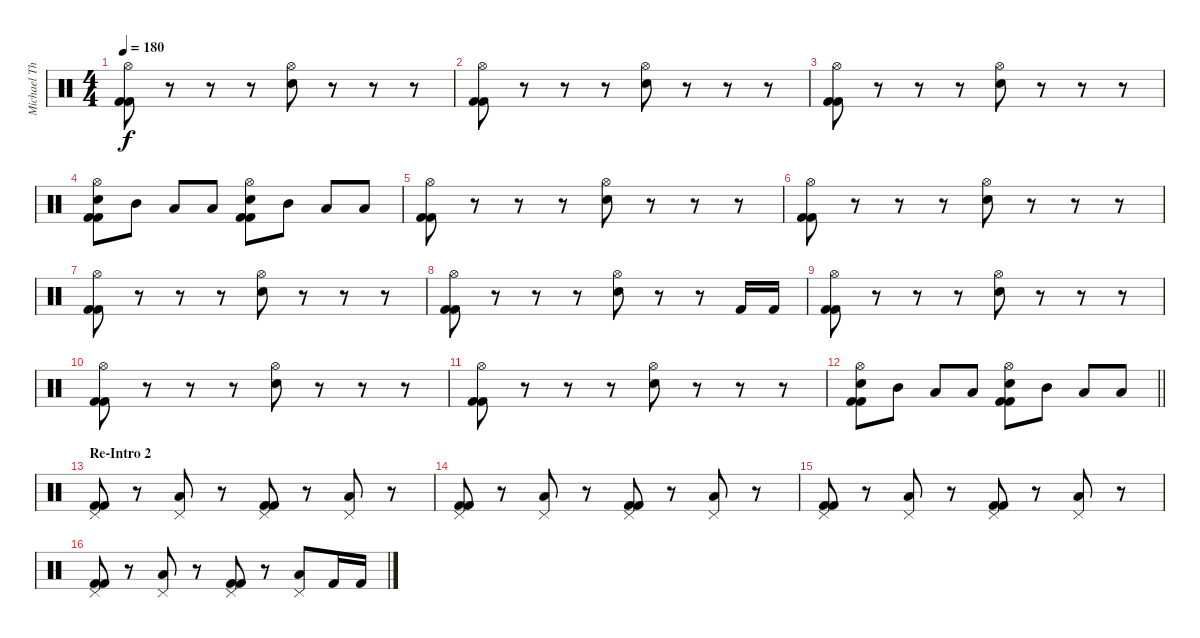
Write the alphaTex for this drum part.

\track ("Michael Thomas" "Michael Th") {instrument percussion}
\staff
\articulation defaults
\ts (4 4)
\tempo 180
\clef neutral
\ks c
("Hi-Hat (open)" "Kick (hit) 2" "Kick (hit) 2").8{dy f} r.8 r.8 r.8 ("Hi-Hat (open)" "Electric Snare (hit)").8 r.8 r.8 r.8 |
("Hi-Hat (open)" "Kick (hit) 2" "Kick (hit) 2").8 r.8 r.8 r.8 ("Hi-Hat (open)" "Electric Snare (hit)").8 r.8 r.8 r.8 |
("Hi-Hat (open)" "Kick (hit) 2" "Kick (hit) 2").8 r.8 r.8 r.8 ("Hi-Hat (open)" "Electric Snare (hit)").8 r.8 r.8 r.8 |
("Hi-Hat (open)" "Electric Snare (hit)" "Kick (hit) 2" "Kick (hit) 2").8 "Mid Tom (hit)".8 "Low Tom (hit)".8 "Low Floor Tom (hit)".8 ("Hi-Hat (open)" "Electric Snare (hit)" "Kick (hit) 2" "Kick (hit) 2").8 "Mid Tom (hit)".8 "Low Tom (hit)".8 "Low Floor Tom (hit)".8 |
("Hi-Hat (open)" "Kick (hit) 2" "Kick (hit) 2").8 r.8 r.8 r.8 ("Hi-Hat (open)" "Electric Snare (hit)").8 r.8 r.8 r.8 |
("Hi-Hat (open)" "Kick (hit) 2" "Kick (hit) 2").8 r.8 r.8 r.8 ("Hi-Hat (open)" "Electric Snare (hit)").8 r.8 r.8 r.8 |
("Hi-Hat (open)" "Kick (hit) 2" "Kick (hit) 2").8 r.8 r.8 r.8 ("Hi-Hat (open)" "Electric Snare (hit)").8 r.8 r.8 r.8 |
("Hi-Hat (open)" "Kick (hit) 2" "Kick (hit) 2").8 r.8 r.8 r.8 ("Hi-Hat (open)" "Electric Snare (hit)").8 r.8 r.8 "Kick (hit) 2".16 "Kick (hit) 2".16 |
("Hi-Hat (open)" "Kick (hit) 2" "Kick (hit) 2").8 r.8 r.8 r.8 ("Hi-Hat (open)" "Electric Snare (hit)").8 r.8 r.8 r.8 |
("Hi-Hat (open)" "Kick (hit) 2" "Kick (hit) 2").8 r.8 r.8 r.8 ("Hi-Hat (open)" "Electric Snare (hit)").8 r.8 r.8 r.8 |
("Hi-Hat (open)" "Kick (hit) 2" "Kick (hit) 2").8 r.8 r.8 r.8 ("Hi-Hat (open)" "Electric Snare (hit)").8 r.8 r.8 r.8 |
\barLineRight lightlight
("Hi-Hat (open)" "Electric Snare (hit)" "Kick (hit) 2" "Kick (hit) 2").8 "Mid Tom (hit)".8 "Low Tom (hit)".8 "Low Floor Tom (hit)".8 ("Hi-Hat (open)" "Electric Snare (hit)" "Kick (hit) 2" "Kick (hit) 2").8 "Mid Tom (hit)".8 "Low Tom (hit)".8 "Low Floor Tom (hit)".8 |
\section ("" "Re-Intro 2")
("Pedal Hi-Hat (hit)" "Kick (hit) 2" "Kick (hit) 2").8 r.8 ("Pedal Hi-Hat (hit)" "Low Floor Tom (hit)").8 r.8 ("Pedal Hi-Hat (hit)" "Kick (hit) 2" "Kick (hit) 2").8 r.8 ("Pedal Hi-Hat (hit)" "Low Floor Tom (hit)").8 r.8 |
("Pedal Hi-Hat (hit)" "Kick (hit) 2" "Kick (hit) 2").8 r.8 ("Pedal Hi-Hat (hit)" "Low Floor Tom (hit)").8 r.8 ("Pedal Hi-Hat (hit)" "Kick (hit) 2" "Kick (hit) 2").8 r.8 ("Pedal Hi-Hat (hit)" "Low Floor Tom (hit)").8 r.8 |
("Pedal Hi-Hat (hit)" "Kick (hit) 2" "Kick (hit) 2").8 r.8 ("Pedal Hi-Hat (hit)" "Low Floor Tom (hit)").8 r.8 ("Pedal Hi-Hat (hit)" "Kick (hit) 2" "Kick (hit) 2").8 r.8 ("Pedal Hi-Hat (hit)" "Low Floor Tom (hit)").8 r.8 |
("Pedal Hi-Hat (hit)" "Kick (hit) 2" "Kick (hit) 2").8 r.8 ("Pedal Hi-Hat (hit)" "Low Floor Tom (hit)").8 r.8 ("Pedal Hi-Hat (hit)" "Kick (hit) 2" "Kick (hit) 2").8 r.8 ("Pedal Hi-Hat (hit)" "Low Floor Tom (hit)").8 "Kick (hit) 2".16 "Kick (hit) 2".16
